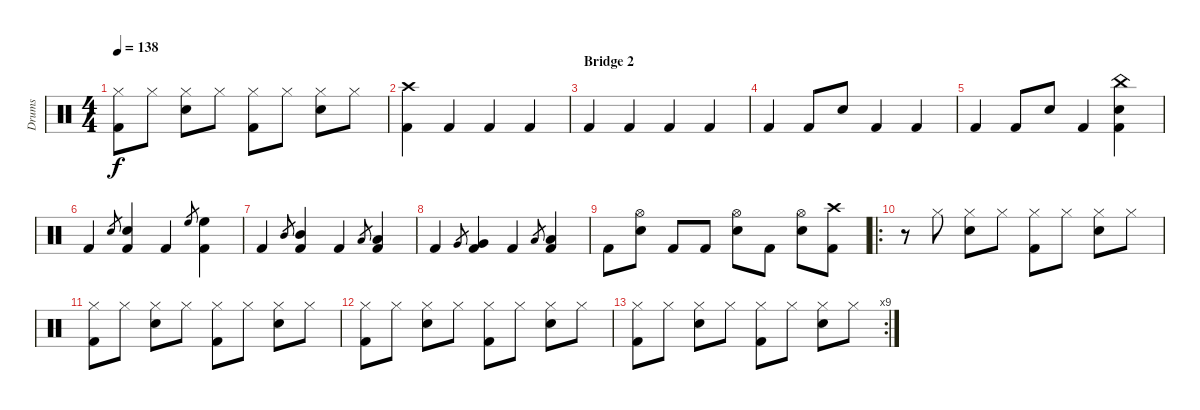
\track ("Drums" "Drums") {instrument percussion}
\staff {score}
\articulation defaults
\ts (4 4)
\tempo 138
\clef neutral
\ks c
("Hi-Hat (closed)" "Kick (hit) 2").8{dy f} "Hi-Hat (closed)".8 ("Hi-Hat (closed)" "Snare (hit) 2").8 "Hi-Hat (closed)".8 ("Hi-Hat (closed)" "Kick (hit) 2").8 "Hi-Hat (closed)".8 ("Hi-Hat (closed)" "Snare (hit) 2").8 "Hi-Hat (closed)".8 |
("Crash high (hit)" "Kick (hit) 2").4 "Kick (hit) 2".4 "Kick (hit) 2".4 "Kick (hit) 2".4 |
\section ("" "Bridge 2")
"Kick (hit) 2".4 "Kick (hit) 2".4 "Kick (hit) 2".4 "Kick (hit) 2".4 |
"Kick (hit) 2".4 "Kick (hit) 2".8 "Snare (hit) 2".8 "Kick (hit) 2".4 "Kick (hit) 2".4 |
"Kick (hit) 2".4 "Kick (hit) 2".8 "Snare (hit) 2".8 "Kick (hit) 2".4 ("China (hit)" "Snare (hit) 2" "Kick (hit) 2").4 |
"Kick (hit) 2".4 "Snare (hit) 2".8{gr} ("Snare (hit) 2" "Kick (hit) 2").4 "Kick (hit) 2".4 "High Floor Tom (hit)".8{gr} ("High Floor Tom (hit)" "Kick (hit) 2").4 |
"Kick (hit) 2".4 "Mid Tom (hit)".8{gr} ("Mid Tom (hit)" "Kick (hit) 2").4 "Kick (hit) 2".4 "Low Tom (hit)".8{gr} ("Low Tom (hit)" "Kick (hit) 2").4 |
"Kick (hit) 2".4 "Very Low Tom (hit)".8{gr} ("Very Low Tom (hit)" "Kick (hit) 2").4 "Kick (hit) 2".4 "Low Floor Tom (hit)".8{gr} ("Low Floor Tom (hit)" "Kick (hit) 2").4 |
"Kick (hit) 2".8 ("Hi-Hat (open)" "Snare (hit) 2").8 "Kick (hit) 2".8 "Kick (hit) 2".8 ("Hi-Hat (open)" "Snare (hit) 2").8 "Kick (hit) 2".8 ("Hi-Hat (open)" "Snare (hit) 2").8 ("Crash high (hit)" "Kick (hit) 2").8 |
\ro
r.8 "Hi-Hat (closed)".8 ("Hi-Hat (closed)" "Snare (hit) 2").8 "Hi-Hat (closed)".8 ("Hi-Hat (closed)" "Kick (hit) 2").8 "Hi-Hat (closed)".8 ("Hi-Hat (closed)" "Snare (hit) 2").8 "Hi-Hat (closed)".8 |
("Hi-Hat (closed)" "Kick (hit) 2").8 "Hi-Hat (closed)".8 ("Hi-Hat (closed)" "Snare (hit) 2").8 "Hi-Hat (closed)".8 ("Hi-Hat (closed)" "Kick (hit) 2").8 "Hi-Hat (closed)".8 ("Hi-Hat (closed)" "Snare (hit) 2").8 "Hi-Hat (closed)".8 |
("Hi-Hat (closed)" "Kick (hit) 2").8 "Hi-Hat (closed)".8 ("Hi-Hat (closed)" "Snare (hit) 2").8 "Hi-Hat (closed)".8 ("Hi-Hat (closed)" "Kick (hit) 2").8 "Hi-Hat (closed)".8 ("Hi-Hat (closed)" "Snare (hit) 2").8 "Hi-Hat (closed)".8 |
\rc 9
("Hi-Hat (closed)" "Kick (hit) 2").8 "Hi-Hat (closed)".8 ("Hi-Hat (closed)" "Snare (hit) 2").8 "Hi-Hat (closed)".8 ("Hi-Hat (closed)" "Kick (hit) 2").8 "Hi-Hat (closed)".8 ("Hi-Hat (closed)" "Snare (hit) 2").8 "Hi-Hat (closed)".8
